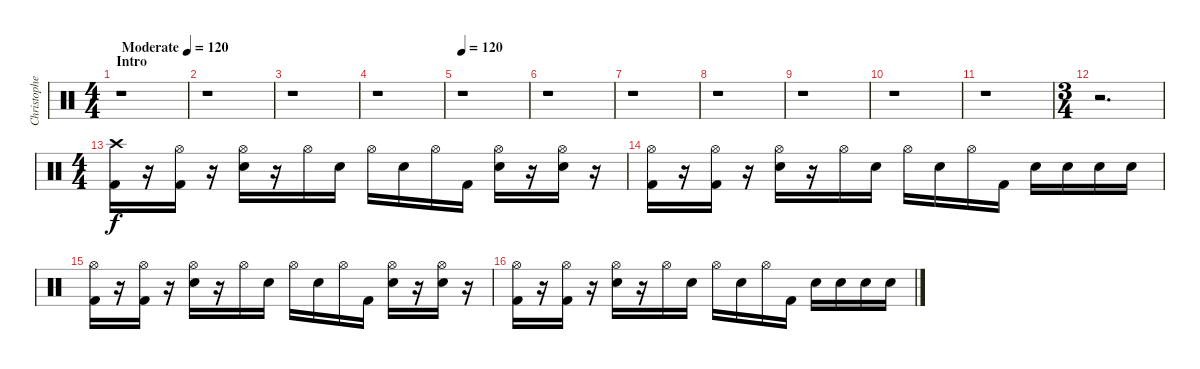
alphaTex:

\track ("Christopher - Drums" "Christophe") {instrument percussion}
\staff {score}
\articulation defaults
\ts (4 4)
\section ("" "Intro")
\tempo (120 "Moderate")
\tempo 130
\tempo (120 "Moderate")
\clef neutral
\ks c
r.1{dy f} |
r.1 |
r.1 |
r.1 |
\tempo 120
r.1 |
r.1 |
r.1 |
r.1 |
r.1 |
r.1 |
r.1 |
\ts (3 4)
r.2{d} |
\ts (4 4)
("Crash high (hit)" "Kick (hit) 2").16 r.16 ("Hi-Hat (open)" "Kick (hit) 2").16 r.16 ("Hi-Hat (open)" "Electric Snare (hit)").16 r.16 "Hi-Hat (open)".16 "Electric Snare (hit)".16 "Hi-Hat (open)".16 "Electric Snare (hit)".16 "Hi-Hat (open)".16 "Kick (hit) 2".16 ("Hi-Hat (open)" "Electric Snare (hit)").16 r.16 ("Hi-Hat (open)" "Electric Snare (hit)").16 r.16 |
("Hi-Hat (open)" "Kick (hit) 2").16 r.16 ("Hi-Hat (open)" "Kick (hit) 2").16 r.16 ("Hi-Hat (open)" "Electric Snare (hit)").16 r.16 "Hi-Hat (open)".16 "Electric Snare (hit)".16 "Hi-Hat (open)".16 "Electric Snare (hit)".16 "Hi-Hat (open)".16 "Kick (hit) 2".16 "Electric Snare (hit)".16 "Electric Snare (hit)".16 "Electric Snare (hit)".16 "Electric Snare (hit)".16 |
("Hi-Hat (open)" "Kick (hit) 2").16 r.16 ("Hi-Hat (open)" "Kick (hit) 2").16 r.16 ("Hi-Hat (open)" "Electric Snare (hit)").16 r.16 "Hi-Hat (open)".16 "Electric Snare (hit)".16 "Hi-Hat (open)".16 "Electric Snare (hit)".16 "Hi-Hat (open)".16 "Kick (hit) 2".16 ("Hi-Hat (open)" "Electric Snare (hit)").16 r.16 ("Hi-Hat (open)" "Electric Snare (hit)").16 r.16 |
("Hi-Hat (open)" "Kick (hit) 2").16 r.16 ("Hi-Hat (open)" "Kick (hit) 2").16 r.16 ("Hi-Hat (open)" "Electric Snare (hit)").16 r.16 "Hi-Hat (open)".16 "Electric Snare (hit)".16 "Hi-Hat (open)".16 "Electric Snare (hit)".16 "Hi-Hat (open)".16 "Kick (hit) 2".16 "Electric Snare (hit)".16 "Electric Snare (hit)".16 "Electric Snare (hit)".16 "Electric Snare (hit)".16
